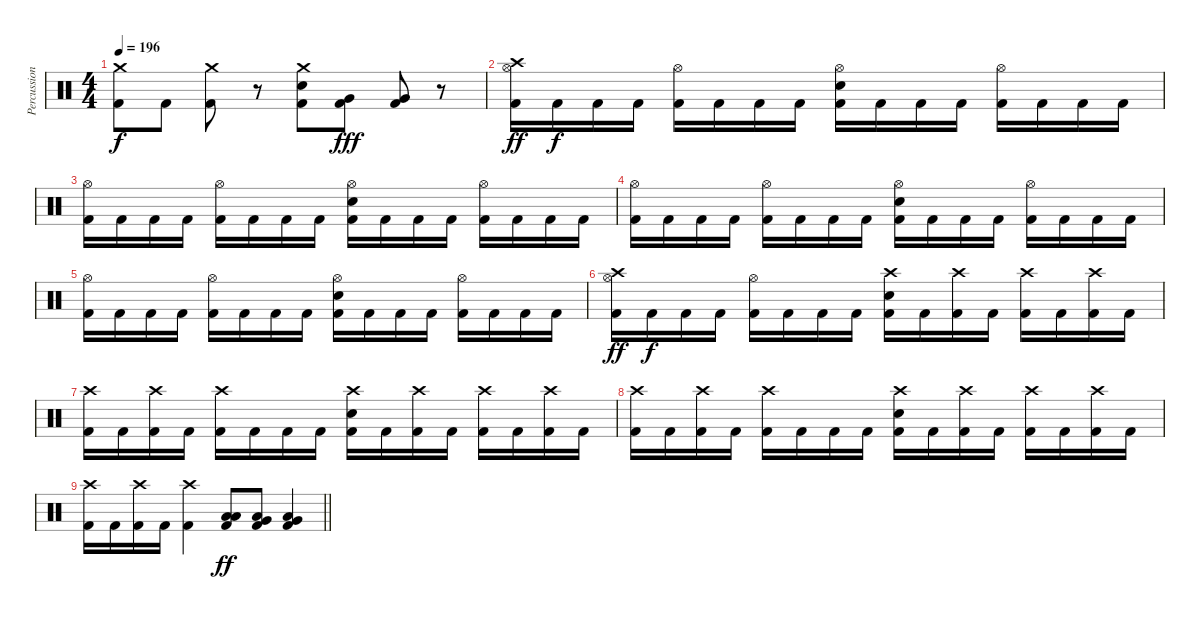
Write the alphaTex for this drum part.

\track ("Percussions" "Percussion") {instrument percussion}
\staff {score}
\articulation defaults
\ts (4 4)
\tempo 196
\clef neutral
\ks c
("Crash medium (hit)" "Kick (hit) 2").8{dy f} "Kick (hit) 2".8 ("Crash medium (hit)" "Kick (hit) 2").8 r.8 ("Crash medium (hit)" "Electric Snare (hit)" "Kick (hit) 2").8 ("Very Low Tom (hit)" "Kick (hit) 2").8{dy fff} ("Very Low Tom (hit)" "Kick (hit) 2").8 r.8 |
("Crash high (hit)" "Hi-Hat (open)" "Kick (hit) 2").16{dy ff} "Kick (hit) 2".16{dy f} "Kick (hit) 2".16 "Kick (hit) 2".16 ("Hi-Hat (open)" "Kick (hit) 2").16 "Kick (hit) 2".16 "Kick (hit) 2".16 "Kick (hit) 2".16 ("Hi-Hat (open)" "Electric Snare (hit)" "Kick (hit) 2").16 "Kick (hit) 2".16 "Kick (hit) 2".16 "Kick (hit) 2".16 ("Hi-Hat (open)" "Kick (hit) 2").16 "Kick (hit) 2".16 "Kick (hit) 2".16 "Kick (hit) 2".16 |
("Hi-Hat (open)" "Kick (hit) 2").16 "Kick (hit) 2".16 "Kick (hit) 2".16 "Kick (hit) 2".16 ("Hi-Hat (open)" "Kick (hit) 2").16 "Kick (hit) 2".16 "Kick (hit) 2".16 "Kick (hit) 2".16 ("Hi-Hat (open)" "Electric Snare (hit)" "Kick (hit) 2").16 "Kick (hit) 2".16 "Kick (hit) 2".16 "Kick (hit) 2".16 ("Hi-Hat (open)" "Kick (hit) 2").16 "Kick (hit) 2".16 "Kick (hit) 2".16 "Kick (hit) 2".16 |
("Hi-Hat (open)" "Kick (hit) 2").16 "Kick (hit) 2".16 "Kick (hit) 2".16 "Kick (hit) 2".16 ("Hi-Hat (open)" "Kick (hit) 2").16 "Kick (hit) 2".16 "Kick (hit) 2".16 "Kick (hit) 2".16 ("Hi-Hat (open)" "Electric Snare (hit)" "Kick (hit) 2").16 "Kick (hit) 2".16 "Kick (hit) 2".16 "Kick (hit) 2".16 ("Hi-Hat (open)" "Kick (hit) 2").16 "Kick (hit) 2".16 "Kick (hit) 2".16 "Kick (hit) 2".16 |
("Hi-Hat (open)" "Kick (hit) 2").16 "Kick (hit) 2".16 "Kick (hit) 2".16 "Kick (hit) 2".16 ("Hi-Hat (open)" "Kick (hit) 2").16 "Kick (hit) 2".16 "Kick (hit) 2".16 "Kick (hit) 2".16 ("Hi-Hat (open)" "Electric Snare (hit)" "Kick (hit) 2").16 "Kick (hit) 2".16 "Kick (hit) 2".16 "Kick (hit) 2".16 ("Hi-Hat (open)" "Kick (hit) 2").16 "Kick (hit) 2".16 "Kick (hit) 2".16 "Kick (hit) 2".16 |
("Crash high (hit)" "Hi-Hat (open)" "Kick (hit) 2").16{dy ff} "Kick (hit) 2".16{dy f} "Kick (hit) 2".16 "Kick (hit) 2".16 ("Hi-Hat (open)" "Kick (hit) 2").16 "Kick (hit) 2".16 "Kick (hit) 2".16 "Kick (hit) 2".16 ("Crash high (hit)" "Electric Snare (hit)" "Kick (hit) 2").16 "Kick (hit) 2".16 ("Crash high (hit)" "Kick (hit) 2").16 "Kick (hit) 2".16 ("Crash high (hit)" "Kick (hit) 2").16 "Kick (hit) 2".16 ("Crash high (hit)" "Kick (hit) 2").16 "Kick (hit) 2".16 |
("Crash high (hit)" "Kick (hit) 2").16 "Kick (hit) 2".16 ("Crash high (hit)" "Kick (hit) 2").16 "Kick (hit) 2".16 ("Crash high (hit)" "Kick (hit) 2").16 "Kick (hit) 2".16 "Kick (hit) 2".16 "Kick (hit) 2".16 ("Crash high (hit)" "Electric Snare (hit)" "Kick (hit) 2").16 "Kick (hit) 2".16 ("Crash high (hit)" "Kick (hit) 2").16 "Kick (hit) 2".16 ("Crash high (hit)" "Kick (hit) 2").16 "Kick (hit) 2".16 ("Crash high (hit)" "Kick (hit) 2").16 "Kick (hit) 2".16 |
("Crash high (hit)" "Kick (hit) 2").16 "Kick (hit) 2".16 ("Crash high (hit)" "Kick (hit) 2").16 "Kick (hit) 2".16 ("Crash high (hit)" "Kick (hit) 2").16 "Kick (hit) 2".16 "Kick (hit) 2".16 "Kick (hit) 2".16 ("Crash high (hit)" "Electric Snare (hit)" "Kick (hit) 2").16 "Kick (hit) 2".16 ("Crash high (hit)" "Kick (hit) 2").16 "Kick (hit) 2".16 ("Crash high (hit)" "Kick (hit) 2").16 "Kick (hit) 2".16 ("Crash high (hit)" "Kick (hit) 2").16 "Kick (hit) 2".16 |
\barLineRight lightlight
("Crash high (hit)" "Kick (hit) 2").16 "Kick (hit) 2".16 ("Crash high (hit)" "Kick (hit) 2").16 "Kick (hit) 2".16 ("Crash high (hit)" "Kick (hit) 2").4 ("Low Tom (hit)" "Low Floor Tom (hit)" "Kick (hit) 2").8{dy ff} ("Very Low Tom (hit)" "Low Floor Tom (hit)" "Kick (hit) 2").8 ("Very Low Tom (hit)" "Low Floor Tom (hit)" "Kick (hit) 2").4
